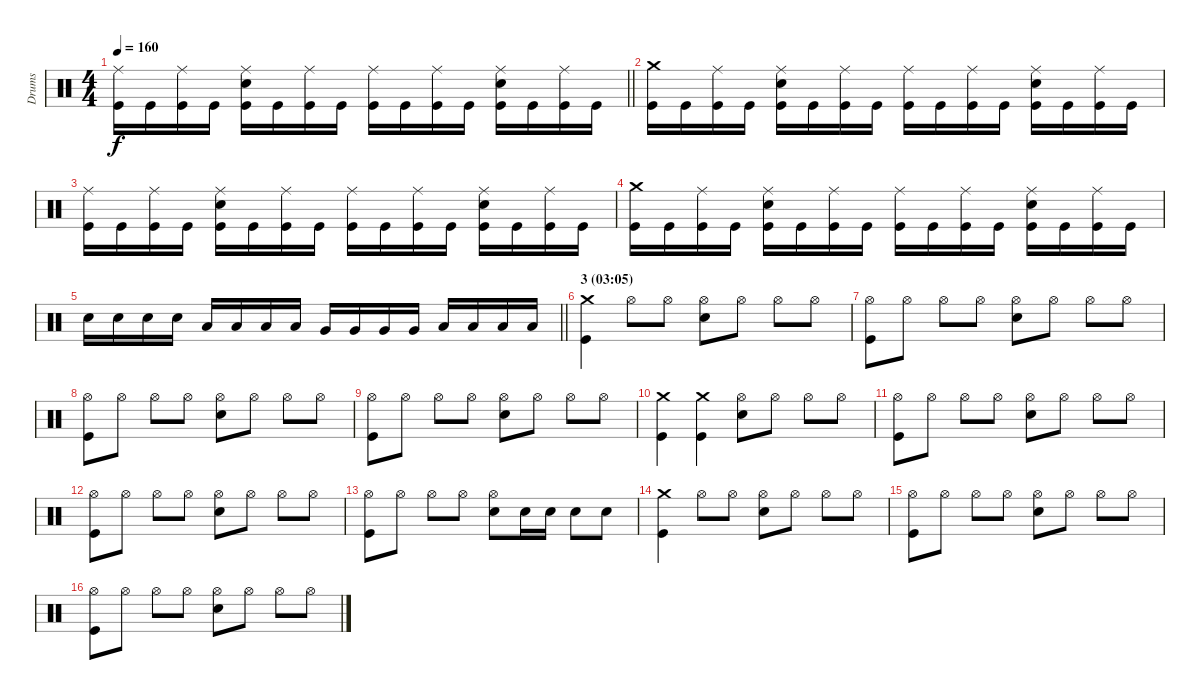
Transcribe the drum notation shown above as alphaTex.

\track ("Drums" "Drums") {instrument percussion}
\staff {score}
\articulation defaults
\ts (4 4)
\tempo 160
\clef neutral
\barLineRight lightlight
\ks c
("Ride (middle)" "Kick (hit)").16{dy f} "Kick (hit)".16 ("Ride (middle)" "Kick (hit)").16 "Kick (hit)".16 ("Ride (middle)" "Electric Snare (hit)" "Kick (hit)").16 "Kick (hit)".16 ("Ride (middle)" "Kick (hit)").16 "Kick (hit)".16 ("Ride (middle)" "Kick (hit)").16 "Kick (hit)".16 ("Ride (middle)" "Kick (hit)").16 "Kick (hit)".16 ("Ride (middle)" "Electric Snare (hit)" "Kick (hit)").16 "Kick (hit)".16 ("Ride (middle)" "Kick (hit)").16 "Kick (hit)".16 |
("Crash medium (hit)" "Kick (hit)").16 "Kick (hit)".16 ("Ride (middle)" "Kick (hit)").16 "Kick (hit)".16 ("Ride (middle)" "Electric Snare (hit)" "Kick (hit)").16 "Kick (hit)".16 ("Ride (middle)" "Kick (hit)").16 "Kick (hit)".16 ("Ride (middle)" "Kick (hit)").16 "Kick (hit)".16 ("Ride (middle)" "Kick (hit)").16 "Kick (hit)".16 ("Ride (middle)" "Electric Snare (hit)" "Kick (hit)").16 "Kick (hit)".16 ("Ride (middle)" "Kick (hit)").16 "Kick (hit)".16 |
("Ride (middle)" "Kick (hit)").16 "Kick (hit)".16 ("Ride (middle)" "Kick (hit)").16 "Kick (hit)".16 ("Ride (middle)" "Electric Snare (hit)" "Kick (hit)").16 "Kick (hit)".16 ("Ride (middle)" "Kick (hit)").16 "Kick (hit)".16 ("Ride (middle)" "Kick (hit)").16 "Kick (hit)".16 ("Ride (middle)" "Kick (hit)").16 "Kick (hit)".16 ("Ride (middle)" "Electric Snare (hit)" "Kick (hit)").16 "Kick (hit)".16 ("Ride (middle)" "Kick (hit)").16 "Kick (hit)".16 |
("Crash medium (hit)" "Kick (hit)").16 "Kick (hit)".16 ("Ride (middle)" "Kick (hit)").16 "Kick (hit)".16 ("Ride (middle)" "Electric Snare (hit)" "Kick (hit)").16 "Kick (hit)".16 ("Ride (middle)" "Kick (hit)").16 "Kick (hit)".16 ("Ride (middle)" "Kick (hit)").16 "Kick (hit)".16 ("Ride (middle)" "Kick (hit)").16 "Kick (hit)".16 ("Ride (middle)" "Electric Snare (hit)" "Kick (hit)").16 "Kick (hit)".16 ("Ride (middle)" "Kick (hit)").16 "Kick (hit)".16 |
\barLineRight lightlight "Electric Snare (hit)".16 "Electric Snare (hit)".16 "Electric Snare (hit)".16 "Electric Snare (hit)".16 "Low Tom (hit)".16 "Low Tom (hit)".16 "Low Tom (hit)".16 "Low Tom (hit)".16 "Very Low Tom (hit)".16 "Very Low Tom (hit)".16 "Very Low Tom (hit)".16 "Very Low Tom (hit)".16 "Low Floor Tom (hit)".16 "Low Floor Tom (hit)".16 "Low Floor Tom (hit)".16 "Low Floor Tom (hit)".16
|
\section ("" "3 (03:05)")
("Crash medium (hit)" "Kick (hit)").4 "Hi-Hat (open)".8 "Hi-Hat (open)".8 ("Hi-Hat (open)" "Electric Snare (hit)").8 "Hi-Hat (open)".8 "Hi-Hat (open)".8 "Hi-Hat (open)".8 |
("Hi-Hat (open)" "Kick (hit)").8 "Hi-Hat (open)".8 "Hi-Hat (open)".8 "Hi-Hat (open)".8 ("Hi-Hat (open)" "Electric Snare (hit)").8 "Hi-Hat (open)".8 "Hi-Hat (open)".8 "Hi-Hat (open)".8 |
("Hi-Hat (open)" "Kick (hit)").8 "Hi-Hat (open)".8 "Hi-Hat (open)".8 "Hi-Hat (open)".8 ("Hi-Hat (open)" "Electric Snare (hit)").8 "Hi-Hat (open)".8 "Hi-Hat (open)".8 "Hi-Hat (open)".8 |
("Hi-Hat (open)" "Kick (hit)").8 "Hi-Hat (open)".8 "Hi-Hat (open)".8 "Hi-Hat (open)".8 ("Hi-Hat (open)" "Electric Snare (hit)").8 "Hi-Hat (open)".8 "Hi-Hat (open)".8 "Hi-Hat (open)".8 |
("Crash medium (hit)" "Kick (hit)").4 ("Crash medium (hit)" "Kick (hit)").4 ("Hi-Hat (open)" "Electric Snare (hit)").8 "Hi-Hat (open)".8 "Hi-Hat (open)".8 "Hi-Hat (open)".8 |
("Hi-Hat (open)" "Kick (hit)").8 "Hi-Hat (open)".8 "Hi-Hat (open)".8 "Hi-Hat (open)".8 ("Hi-Hat (open)" "Electric Snare (hit)").8 "Hi-Hat (open)".8 "Hi-Hat (open)".8 "Hi-Hat (open)".8 |
("Hi-Hat (open)" "Kick (hit)").8 "Hi-Hat (open)".8 "Hi-Hat (open)".8 "Hi-Hat (open)".8 ("Hi-Hat (open)" "Electric Snare (hit)").8 "Hi-Hat (open)".8 "Hi-Hat (open)".8 "Hi-Hat (open)".8 |
("Hi-Hat (open)" "Kick (hit)").8 "Hi-Hat (open)".8 "Hi-Hat (open)".8 "Hi-Hat (open)".8 ("Hi-Hat (open)" "Electric Snare (hit)").8 "Electric Snare (hit)".16 "Electric Snare (hit)".16 "Electric Snare (hit)".8 "Electric Snare (hit)".8 |
("Crash medium (hit)" "Kick (hit)").4 "Hi-Hat (open)".8 "Hi-Hat (open)".8 ("Hi-Hat (open)" "Electric Snare (hit)").8 "Hi-Hat (open)".8 "Hi-Hat (open)".8 "Hi-Hat (open)".8 |
("Hi-Hat (open)" "Kick (hit)").8 "Hi-Hat (open)".8 "Hi-Hat (open)".8 "Hi-Hat (open)".8 ("Hi-Hat (open)" "Electric Snare (hit)").8 "Hi-Hat (open)".8 "Hi-Hat (open)".8 "Hi-Hat (open)".8 |
("Hi-Hat (open)" "Kick (hit)").8 "Hi-Hat (open)".8 "Hi-Hat (open)".8 "Hi-Hat (open)".8 ("Hi-Hat (open)" "Electric Snare (hit)").8 "Hi-Hat (open)".8 "Hi-Hat (open)".8 "Hi-Hat (open)".8
